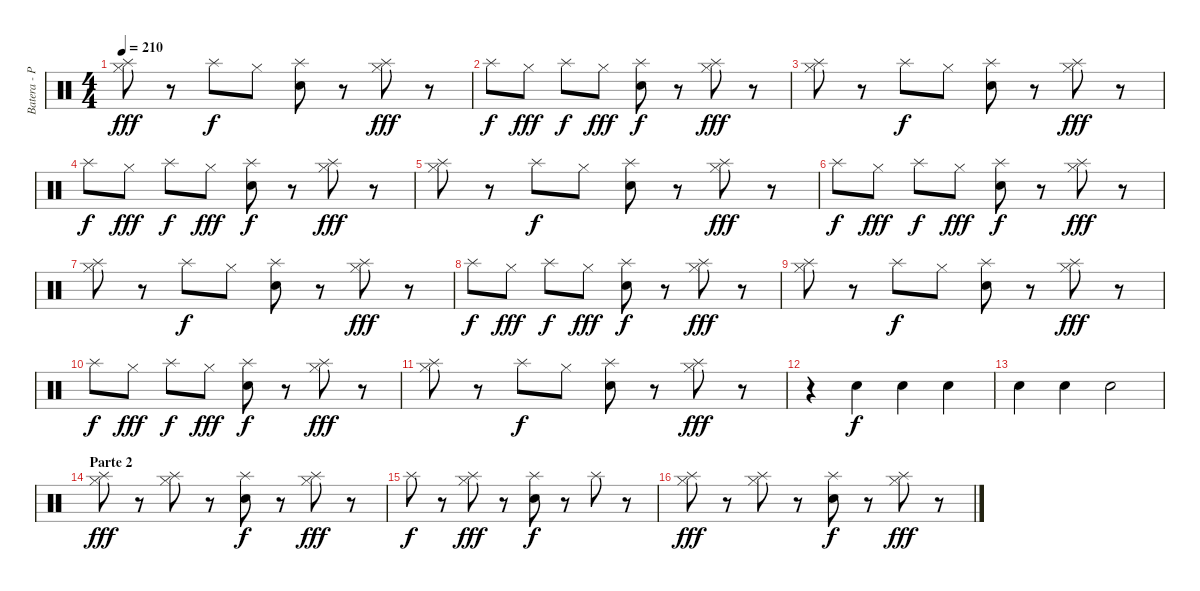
\track ("Batera - Pelado" "Batera - P") {instrument percussion}
\staff {score}
\articulation defaults
\ts (4 4)
\tempo 210
\clef neutral
\ks c
("Splash (hit)" "Hi-Hat (closed)").8{dy fff} r.8 "Splash (hit)".8{dy f} "Hi-Hat (closed)".8 ("Splash (hit)" "Electric Snare (hit)").8 r.8 ("Splash (hit)" "Hi-Hat (closed)").8{dy fff} r.8 |
"Splash (hit)".8{dy f} "Hi-Hat (closed)".8{dy fff} "Splash (hit)".8{dy f} "Hi-Hat (closed)".8{dy fff} ("Splash (hit)" "Electric Snare (hit)").8{dy f} r.8 ("Splash (hit)" "Hi-Hat (closed)").8{dy fff} r.8 |
("Splash (hit)" "Hi-Hat (closed)").8 r.8 "Splash (hit)".8{dy f} "Hi-Hat (closed)".8 ("Splash (hit)" "Electric Snare (hit)").8 r.8 ("Splash (hit)" "Hi-Hat (closed)").8{dy fff} r.8 |
"Splash (hit)".8{dy f} "Hi-Hat (closed)".8{dy fff} "Splash (hit)".8{dy f} "Hi-Hat (closed)".8{dy fff} ("Splash (hit)" "Electric Snare (hit)").8{dy f} r.8 ("Splash (hit)" "Hi-Hat (closed)").8{dy fff} r.8 |
("Splash (hit)" "Hi-Hat (closed)").8 r.8 "Splash (hit)".8{dy f} "Hi-Hat (closed)".8 ("Splash (hit)" "Electric Snare (hit)").8 r.8 ("Splash (hit)" "Hi-Hat (closed)").8{dy fff} r.8 |
"Splash (hit)".8{dy f} "Hi-Hat (closed)".8{dy fff} "Splash (hit)".8{dy f} "Hi-Hat (closed)".8{dy fff} ("Splash (hit)" "Electric Snare (hit)").8{dy f} r.8 ("Splash (hit)" "Hi-Hat (closed)").8{dy fff} r.8 |
("Splash (hit)" "Hi-Hat (closed)").8 r.8 "Splash (hit)".8{dy f} "Hi-Hat (closed)".8 ("Splash (hit)" "Electric Snare (hit)").8 r.8 ("Splash (hit)" "Hi-Hat (closed)").8{dy fff} r.8 |
"Splash (hit)".8{dy f} "Hi-Hat (closed)".8{dy fff} "Splash (hit)".8{dy f} "Hi-Hat (closed)".8{dy fff} ("Splash (hit)" "Electric Snare (hit)").8{dy f} r.8 ("Splash (hit)" "Hi-Hat (closed)").8{dy fff} r.8 |
("Splash (hit)" "Hi-Hat (closed)").8 r.8 "Splash (hit)".8{dy f} "Hi-Hat (closed)".8 ("Splash (hit)" "Electric Snare (hit)").8 r.8 ("Splash (hit)" "Hi-Hat (closed)").8{dy fff} r.8 |
"Splash (hit)".8{dy f} "Hi-Hat (closed)".8{dy fff} "Splash (hit)".8{dy f} "Hi-Hat (closed)".8{dy fff} ("Splash (hit)" "Electric Snare (hit)").8{dy f} r.8 ("Splash (hit)" "Hi-Hat (closed)").8{dy fff} r.8 |
("Splash (hit)" "Hi-Hat (closed)").8 r.8 "Splash (hit)".8{dy f} "Hi-Hat (closed)".8 ("Splash (hit)" "Electric Snare (hit)").8 r.8 ("Splash (hit)" "Hi-Hat (closed)").8{dy fff} r.8 |
r.4 "Electric Snare (hit)".4{dy f} "Electric Snare (hit)".4 "Electric Snare (hit)".4 |
"Electric Snare (hit)".4 "Electric Snare (hit)".4 "Electric Snare (hit)".2 |
\section ("" "Parte 2")
("Splash (hit)" "Hi-Hat (closed)").8{dy fff} r.8 ("Splash (hit)" "Hi-Hat (closed)").8 r.8 ("Splash (hit)" "Electric Snare (hit)").8{dy f} r.8 ("Splash (hit)" "Hi-Hat (closed)").8{dy fff} r.8 |
"Splash (hit)".8{dy f} r.8 ("Splash (hit)" "Hi-Hat (closed)").8{dy fff} r.8 ("Splash (hit)" "Electric Snare (hit)").8{dy f} r.8 "Splash (hit)".8 r.8 |
("Splash (hit)" "Hi-Hat (closed)").8{dy fff} r.8 ("Splash (hit)" "Hi-Hat (closed)").8 r.8 ("Splash (hit)" "Electric Snare (hit)").8{dy f} r.8 ("Splash (hit)" "Hi-Hat (closed)").8{dy fff} r.8
